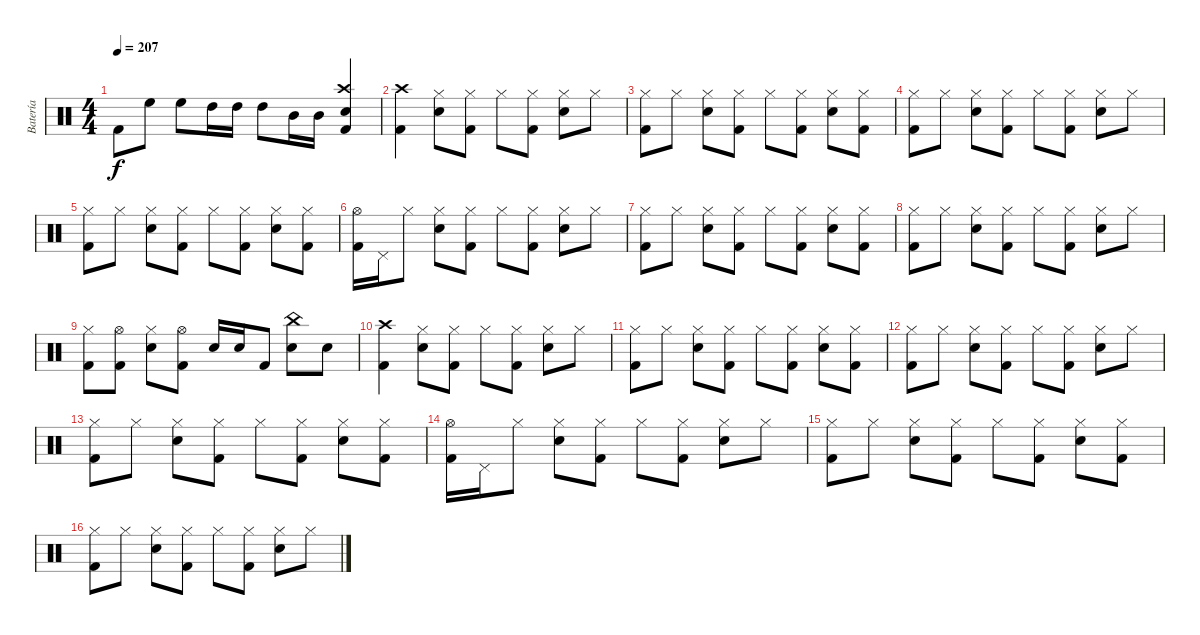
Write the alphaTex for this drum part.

\track ("Batería" "Batería") {instrument percussion}
\staff {score}
\articulation defaults
\ts (4 4)
\tempo 207
\clef neutral
\ks c "Kick (hit) 2".8{dy f} "High Floor Tom (hit)".8 "High Floor Tom (hit)".8 "High Tom (hit)".16 "High Tom (hit)".16 "High Tom (hit)".8 "Mid Tom (hit)".16 "Mid Tom (hit)".16
("Crash high (hit)" "Snare (hit) 2" "Kick (hit) 2").4 |
("Crash high (hit)" "Kick (hit) 2").4 ("Snare (hit) 2" "Hi-Hat (closed)").8 ("Hi-Hat (closed)" "Kick (hit) 2").8 "Hi-Hat (closed)".8 ("Hi-Hat (closed)" "Kick (hit) 2").8 ("Snare (hit) 2" "Hi-Hat (closed)").8 "Hi-Hat (closed)".8 |
("Hi-Hat (closed)" "Kick (hit) 2").8 "Hi-Hat (closed)".8 ("Snare (hit) 2" "Hi-Hat (closed)").8 ("Hi-Hat (closed)" "Kick (hit) 2").8 "Hi-Hat (closed)".8 ("Hi-Hat (closed)" "Kick (hit) 2").8 ("Snare (hit) 2" "Hi-Hat (closed)").8 ("Hi-Hat (closed)" "Kick (hit) 2").8 |
("Hi-Hat (closed)" "Kick (hit) 2").8 "Hi-Hat (closed)".8 ("Snare (hit) 2" "Hi-Hat (closed)").8 ("Hi-Hat (closed)" "Kick (hit) 2").8 "Hi-Hat (closed)".8 ("Hi-Hat (closed)" "Kick (hit) 2").8 ("Snare (hit) 2" "Hi-Hat (closed)").8 "Hi-Hat (closed)".8 |
("Hi-Hat (closed)" "Kick (hit) 2").8 "Hi-Hat (closed)".8 ("Snare (hit) 2" "Hi-Hat (closed)").8 ("Hi-Hat (closed)" "Kick (hit) 2").8 "Hi-Hat (closed)".8 ("Hi-Hat (closed)" "Kick (hit) 2").8 ("Snare (hit) 2" "Hi-Hat (closed)").8 ("Hi-Hat (closed)" "Kick (hit) 2").8 |
("Hi-Hat (open)" "Kick (hit) 2").16 "Pedal Hi-Hat (hit)".16 "Hi-Hat (closed)".8 ("Snare (hit) 2" "Hi-Hat (closed)").8 ("Hi-Hat (closed)" "Kick (hit) 2").8 "Hi-Hat (closed)".8 ("Hi-Hat (closed)" "Kick (hit) 2").8 ("Snare (hit) 2" "Hi-Hat (closed)").8 "Hi-Hat (closed)".8 |
("Hi-Hat (closed)" "Kick (hit) 2").8 "Hi-Hat (closed)".8 ("Snare (hit) 2" "Hi-Hat (closed)").8 ("Hi-Hat (closed)" "Kick (hit) 2").8 "Hi-Hat (closed)".8 ("Hi-Hat (closed)" "Kick (hit) 2").8 ("Snare (hit) 2" "Hi-Hat (closed)").8 ("Hi-Hat (closed)" "Kick (hit) 2").8 |
("Hi-Hat (closed)" "Kick (hit) 2").8 "Hi-Hat (closed)".8 ("Snare (hit) 2" "Hi-Hat (closed)").8 ("Hi-Hat (closed)" "Kick (hit) 2").8 "Hi-Hat (closed)".8 ("Hi-Hat (closed)" "Kick (hit) 2").8 ("Snare (hit) 2" "Hi-Hat (closed)").8 "Hi-Hat (closed)".8 |
("Hi-Hat (closed)" "Kick (hit) 2").8 ("Hi-Hat (open)" "Kick (hit) 2").8 ("Snare (hit) 2" "Hi-Hat (closed)").8 ("Hi-Hat (open)" "Kick (hit) 2").8 "Snare (hit) 2".16 "Snare (hit) 2".16 "Kick (hit) 2".8 ("China (hit)" "Snare (hit) 2").8 "Snare (hit) 2".8 |
("Crash high (hit)" "Kick (hit) 2").4 ("Snare (hit) 2" "Hi-Hat (closed)").8 ("Hi-Hat (closed)" "Kick (hit) 2").8 "Hi-Hat (closed)".8 ("Hi-Hat (closed)" "Kick (hit) 2").8 ("Snare (hit) 2" "Hi-Hat (closed)").8 "Hi-Hat (closed)".8 |
("Hi-Hat (closed)" "Kick (hit) 2").8 "Hi-Hat (closed)".8 ("Snare (hit) 2" "Hi-Hat (closed)").8 ("Hi-Hat (closed)" "Kick (hit) 2").8 "Hi-Hat (closed)".8 ("Hi-Hat (closed)" "Kick (hit) 2").8 ("Snare (hit) 2" "Hi-Hat (closed)").8 ("Hi-Hat (closed)" "Kick (hit) 2").8 |
("Hi-Hat (closed)" "Kick (hit) 2").8 "Hi-Hat (closed)".8 ("Snare (hit) 2" "Hi-Hat (closed)").8 ("Hi-Hat (closed)" "Kick (hit) 2").8 "Hi-Hat (closed)".8 ("Hi-Hat (closed)" "Kick (hit) 2").8 ("Snare (hit) 2" "Hi-Hat (closed)").8 "Hi-Hat (closed)".8 |
("Hi-Hat (closed)" "Kick (hit) 2").8 "Hi-Hat (closed)".8 ("Snare (hit) 2" "Hi-Hat (closed)").8 ("Hi-Hat (closed)" "Kick (hit) 2").8 "Hi-Hat (closed)".8 ("Hi-Hat (closed)" "Kick (hit) 2").8 ("Snare (hit) 2" "Hi-Hat (closed)").8 ("Hi-Hat (closed)" "Kick (hit) 2").8 |
("Hi-Hat (open)" "Kick (hit) 2").16 "Pedal Hi-Hat (hit)".16 "Hi-Hat (closed)".8 ("Snare (hit) 2" "Hi-Hat (closed)").8 ("Hi-Hat (closed)" "Kick (hit) 2").8 "Hi-Hat (closed)".8 ("Hi-Hat (closed)" "Kick (hit) 2").8 ("Snare (hit) 2" "Hi-Hat (closed)").8 "Hi-Hat (closed)".8 |
("Hi-Hat (closed)" "Kick (hit) 2").8 "Hi-Hat (closed)".8 ("Snare (hit) 2" "Hi-Hat (closed)").8 ("Hi-Hat (closed)" "Kick (hit) 2").8 "Hi-Hat (closed)".8 ("Hi-Hat (closed)" "Kick (hit) 2").8 ("Snare (hit) 2" "Hi-Hat (closed)").8 ("Hi-Hat (closed)" "Kick (hit) 2").8 |
("Hi-Hat (closed)" "Kick (hit) 2").8 "Hi-Hat (closed)".8 ("Snare (hit) 2" "Hi-Hat (closed)").8 ("Hi-Hat (closed)" "Kick (hit) 2").8 "Hi-Hat (closed)".8 ("Hi-Hat (closed)" "Kick (hit) 2").8 ("Snare (hit) 2" "Hi-Hat (closed)").8 "Hi-Hat (closed)".8
